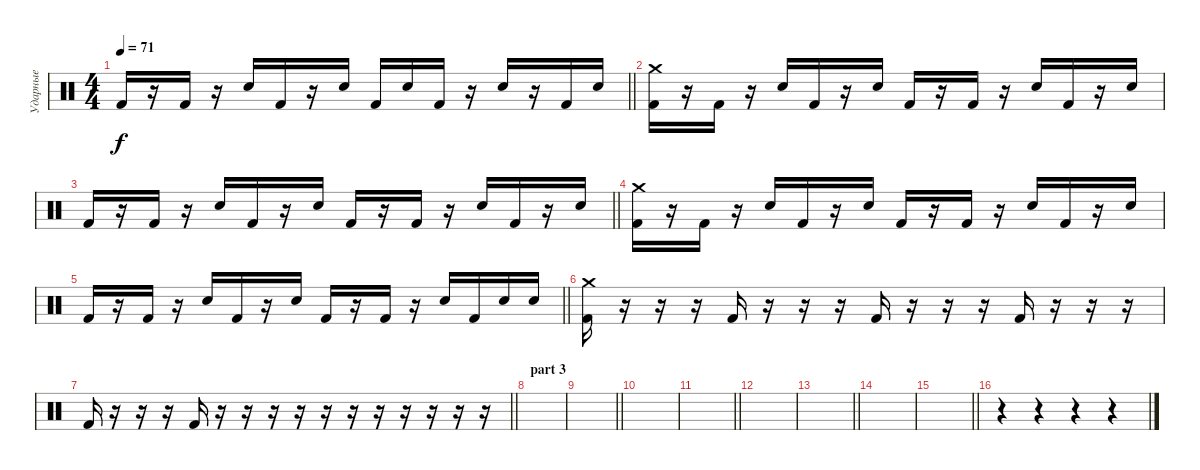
\track ("Ударные" "Ударные") {instrument percussion}
\staff
\articulation defaults
\ts (4 4)
\tempo 71
\clef neutral
\barLineRight lightlight
\ks c "Kick (hit) 2".16{dy f}
r.16 "Kick (hit) 2".16 r.16 "Snare (hit) 2".16 "Kick (hit) 2".16 r.16 "Snare (hit) 2".16 "Kick (hit) 2".16 "Snare (hit) 2".16 "Kick (hit) 2".16 r.16 "Snare (hit) 2".16 r.16 "Kick (hit) 2".16 "Snare (hit) 2".16 |
("Kick (hit) 2" "Crash medium (hit)").16 r.16 "Kick (hit) 2".16 r.16 "Snare (hit) 2".16 "Kick (hit) 2".16 r.16 "Snare (hit) 2".16 "Kick (hit) 2".16 r.16 "Kick (hit) 2".16 r.16 "Snare (hit) 2".16 "Kick (hit) 2".16 r.16 "Snare (hit) 2".16 |
\barLineRight lightlight "Kick (hit) 2".16
r.16 "Kick (hit) 2".16 r.16 "Snare (hit) 2".16 "Kick (hit) 2".16 r.16 "Snare (hit) 2".16 "Kick (hit) 2".16 r.16 "Kick (hit) 2".16 r.16 "Snare (hit) 2".16 "Kick (hit) 2".16 r.16 "Snare (hit) 2".16 |
("Kick (hit) 2" "Crash medium (hit)").16 r.16 "Kick (hit) 2".16 r.16 "Snare (hit) 2".16 "Kick (hit) 2".16 r.16 "Snare (hit) 2".16 "Kick (hit) 2".16 r.16 "Kick (hit) 2".16 r.16 "Snare (hit) 2".16 "Kick (hit) 2".16 r.16 "Snare (hit) 2".16 |
\barLineRight lightlight "Kick (hit) 2".16
r.16 "Kick (hit) 2".16 r.16 "Snare (hit) 2".16 "Kick (hit) 2".16 r.16 "Snare (hit) 2".16 "Kick (hit) 2".16 r.16 "Kick (hit) 2".16 r.16 "Snare (hit) 2".16 "Kick (hit) 2".16 "Snare (hit) 2".16 "Snare (hit) 2".16 |
("Kick (hit) 2" "Crash medium (hit)").16 r.16 r.16 r.16 "Kick (hit) 2".16 r.16 r.16 r.16 "Kick (hit) 2".16 r.16 r.16 r.16 "Kick (hit) 2".16 r.16 r.16 r.16 |
\barLineRight lightlight "Kick (hit) 2".16
r.16 r.16 r.16 "Kick (hit) 2".16 r.16 r.16 r.16 r.16 r.16 r.16 r.16 r.16 r.16 r.16 r.16 |
\section ("" "part 3")
|
\barLineRight lightlight
|
|
\barLineRight lightlight
|
|
\barLineRight lightlight
|
|
\barLineRight lightlight
|
r.4 r.4 r.4 r.4
